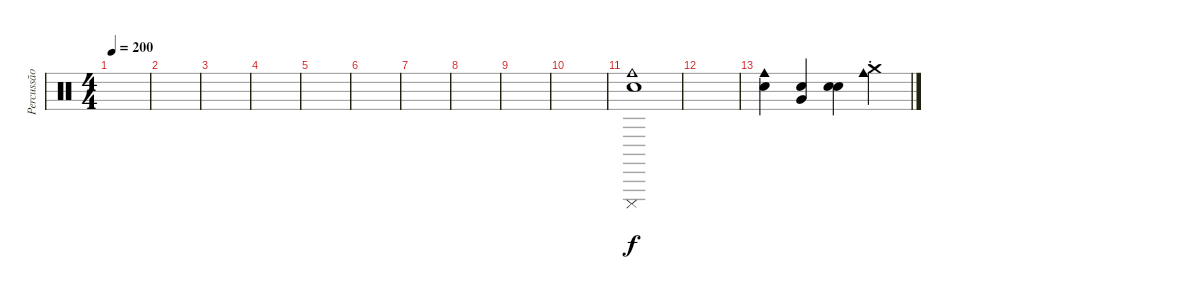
\track ("Percussão" "Percussão") {instrument percussion}
\staff {score}
\articulation defaults
\ts (4 4)
\tempo 200
\clef neutral
\ks c
|
|
|
|
|
|
|
|
|
|
("Snare (hit)" "Cuica (mute)" "Cowbell medium (hit)").1 |
|
("Cowbell medium (hit)" "Snare (hit)").4 ("Snare (hit)" "Very Low Tom (hit)").4 ("Snare (hit)" "Metronome (bell)").4 ("Crash medium (choke)" "Cowbell medium (hit)").4
